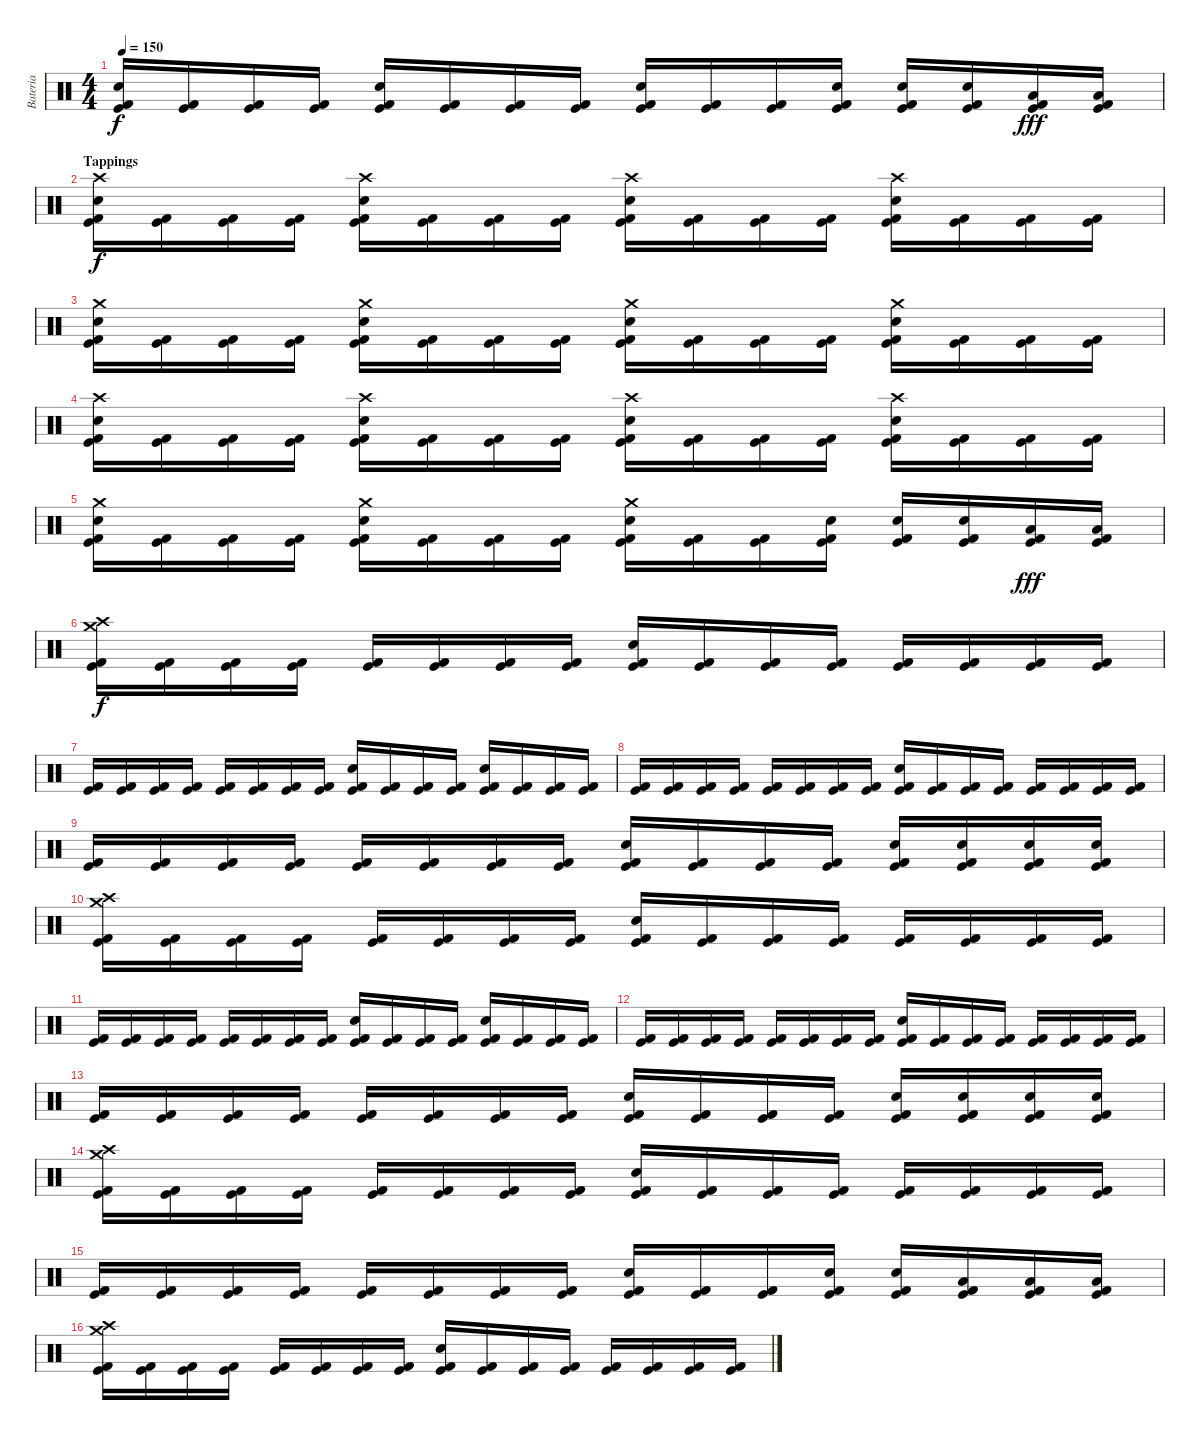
\track ("Bateria" "Bateria") {instrument percussion}
\staff {score}
\articulation defaults
\ts (4 4)
\tempo 150
\clef neutral
\ks c
("Kick (hit) 2" "Kick (hit)" "Electric Snare (hit)").16{dy f} ("Kick (hit) 2" "Kick (hit)").16 ("Kick (hit) 2" "Kick (hit)").16 ("Kick (hit) 2" "Kick (hit)").16 ("Kick (hit) 2" "Kick (hit)" "Electric Snare (hit)").16 ("Kick (hit) 2" "Kick (hit)").16 ("Kick (hit) 2" "Kick (hit)").16 ("Kick (hit) 2" "Kick (hit)").16 ("Kick (hit) 2" "Kick (hit)" "Electric Snare (hit)").16 ("Kick (hit) 2" "Kick (hit)").16 ("Kick (hit) 2" "Kick (hit)").16 ("Kick (hit) 2" "Kick (hit)" "Electric Snare (hit)").16 ("Kick (hit) 2" "Kick (hit)" "Electric Snare (hit)").16 ("Kick (hit) 2" "Kick (hit)" "Electric Snare (hit)").16 ("Kick (hit) 2" "Kick (hit)" "Low Tom (hit)").16{dy fff} ("Kick (hit) 2" "Kick (hit)" "Low Tom (hit)").16 |
\section ("" "Tappings")
("Kick (hit) 2" "Kick (hit)" "Electric Snare (hit)" "Crash high (hit)").16{dy f} ("Kick (hit) 2" "Kick (hit)").16 ("Kick (hit) 2" "Kick (hit)").16 ("Kick (hit) 2" "Kick (hit)").16 ("Kick (hit) 2" "Kick (hit)" "Electric Snare (hit)" "Crash high (hit)").16 ("Kick (hit) 2" "Kick (hit)").16 ("Kick (hit) 2" "Kick (hit)").16 ("Kick (hit) 2" "Kick (hit)").16 ("Kick (hit) 2" "Kick (hit)" "Electric Snare (hit)" "Crash high (hit)").16 ("Kick (hit) 2" "Kick (hit)").16 ("Kick (hit) 2" "Kick (hit)").16 ("Kick (hit) 2" "Kick (hit)").16 ("Kick (hit) 2" "Kick (hit)" "Electric Snare (hit)" "Crash high (hit)").16 ("Kick (hit) 2" "Kick (hit)").16 ("Kick (hit) 2" "Kick (hit)").16 ("Kick (hit) 2" "Kick (hit)").16 |
("Kick (hit) 2" "Kick (hit)" "Electric Snare (hit)" "Crash medium (hit)").16 ("Kick (hit) 2" "Kick (hit)").16 ("Kick (hit) 2" "Kick (hit)").16 ("Kick (hit) 2" "Kick (hit)").16 ("Kick (hit) 2" "Kick (hit)" "Electric Snare (hit)" "Crash medium (hit)").16 ("Kick (hit) 2" "Kick (hit)").16 ("Kick (hit) 2" "Kick (hit)").16 ("Kick (hit) 2" "Kick (hit)").16 ("Kick (hit) 2" "Kick (hit)" "Electric Snare (hit)" "Crash medium (hit)").16 ("Kick (hit) 2" "Kick (hit)").16 ("Kick (hit) 2" "Kick (hit)").16 ("Kick (hit) 2" "Kick (hit)").16 ("Kick (hit) 2" "Kick (hit)" "Electric Snare (hit)" "Crash medium (hit)").16 ("Kick (hit) 2" "Kick (hit)").16 ("Kick (hit) 2" "Kick (hit)").16 ("Kick (hit) 2" "Kick (hit)").16 |
("Kick (hit) 2" "Kick (hit)" "Electric Snare (hit)" "Crash high (hit)").16 ("Kick (hit) 2" "Kick (hit)").16 ("Kick (hit) 2" "Kick (hit)").16 ("Kick (hit) 2" "Kick (hit)").16 ("Kick (hit) 2" "Kick (hit)" "Electric Snare (hit)" "Crash high (hit)").16 ("Kick (hit) 2" "Kick (hit)").16 ("Kick (hit) 2" "Kick (hit)").16 ("Kick (hit) 2" "Kick (hit)").16 ("Kick (hit) 2" "Kick (hit)" "Electric Snare (hit)" "Crash high (hit)").16 ("Kick (hit) 2" "Kick (hit)").16 ("Kick (hit) 2" "Kick (hit)").16 ("Kick (hit) 2" "Kick (hit)").16 ("Kick (hit) 2" "Kick (hit)" "Electric Snare (hit)" "Crash high (hit)").16 ("Kick (hit) 2" "Kick (hit)").16 ("Kick (hit) 2" "Kick (hit)").16 ("Kick (hit) 2" "Kick (hit)").16 |
("Kick (hit) 2" "Kick (hit)" "Electric Snare (hit)" "Crash medium (hit)").16 ("Kick (hit) 2" "Kick (hit)").16 ("Kick (hit) 2" "Kick (hit)").16 ("Kick (hit) 2" "Kick (hit)").16 ("Kick (hit) 2" "Kick (hit)" "Electric Snare (hit)" "Crash medium (hit)").16 ("Kick (hit) 2" "Kick (hit)").16 ("Kick (hit) 2" "Kick (hit)").16 ("Kick (hit) 2" "Kick (hit)").16 ("Kick (hit) 2" "Kick (hit)" "Electric Snare (hit)" "Crash medium (hit)").16 ("Kick (hit) 2" "Kick (hit)").16 ("Kick (hit) 2" "Kick (hit)").16 ("Kick (hit) 2" "Kick (hit)" "Electric Snare (hit)").16 ("Kick (hit) 2" "Kick (hit)" "Electric Snare (hit)").16 ("Kick (hit) 2" "Kick (hit)" "Electric Snare (hit)").16 ("Kick (hit) 2" "Kick (hit)" "Low Tom (hit)").16{dy fff} ("Kick (hit) 2" "Kick (hit)" "Low Tom (hit)").16 |
("Kick (hit) 2" "Kick (hit)" "Crash medium (hit)" "Crash high (hit)").16{dy f} ("Kick (hit) 2" "Kick (hit)").16 ("Kick (hit) 2" "Kick (hit)").16 ("Kick (hit) 2" "Kick (hit)").16 ("Kick (hit) 2" "Kick (hit)").16 ("Kick (hit) 2" "Kick (hit)").16 ("Kick (hit) 2" "Kick (hit)").16 ("Kick (hit) 2" "Kick (hit)").16 ("Kick (hit) 2" "Kick (hit)" "Electric Snare (hit)").16 ("Kick (hit) 2" "Kick (hit)").16 ("Kick (hit) 2" "Kick (hit)").16 ("Kick (hit) 2" "Kick (hit)").16 ("Kick (hit) 2" "Kick (hit)").16 ("Kick (hit) 2" "Kick (hit)").16 ("Kick (hit) 2" "Kick (hit)").16 ("Kick (hit) 2" "Kick (hit)").16 |
("Kick (hit) 2" "Kick (hit)").16 ("Kick (hit) 2" "Kick (hit)").16 ("Kick (hit) 2" "Kick (hit)").16 ("Kick (hit) 2" "Kick (hit)").16 ("Kick (hit) 2" "Kick (hit)").16 ("Kick (hit) 2" "Kick (hit)").16 ("Kick (hit) 2" "Kick (hit)").16 ("Kick (hit) 2" "Kick (hit)").16 ("Kick (hit) 2" "Kick (hit)" "Electric Snare (hit)").16 ("Kick (hit) 2" "Kick (hit)").16 ("Kick (hit) 2" "Kick (hit)").16 ("Kick (hit) 2" "Kick (hit)").16 ("Kick (hit) 2" "Kick (hit)" "Electric Snare (hit)").16 ("Kick (hit) 2" "Kick (hit)").16 ("Kick (hit) 2" "Kick (hit)").16 ("Kick (hit) 2" "Kick (hit)").16 |
("Kick (hit) 2" "Kick (hit)").16 ("Kick (hit) 2" "Kick (hit)").16 ("Kick (hit) 2" "Kick (hit)").16 ("Kick (hit) 2" "Kick (hit)").16 ("Kick (hit) 2" "Kick (hit)").16 ("Kick (hit) 2" "Kick (hit)").16 ("Kick (hit) 2" "Kick (hit)").16 ("Kick (hit) 2" "Kick (hit)").16 ("Kick (hit) 2" "Kick (hit)" "Electric Snare (hit)").16 ("Kick (hit) 2" "Kick (hit)").16 ("Kick (hit) 2" "Kick (hit)").16 ("Kick (hit) 2" "Kick (hit)").16 ("Kick (hit) 2" "Kick (hit)").16 ("Kick (hit) 2" "Kick (hit)").16 ("Kick (hit) 2" "Kick (hit)").16 ("Kick (hit) 2" "Kick (hit)").16 |
("Kick (hit) 2" "Kick (hit)").16 ("Kick (hit) 2" "Kick (hit)").16 ("Kick (hit) 2" "Kick (hit)").16 ("Kick (hit) 2" "Kick (hit)").16 ("Kick (hit) 2" "Kick (hit)").16 ("Kick (hit) 2" "Kick (hit)").16 ("Kick (hit) 2" "Kick (hit)").16 ("Kick (hit) 2" "Kick (hit)").16 ("Kick (hit) 2" "Kick (hit)" "Electric Snare (hit)").16 ("Kick (hit) 2" "Kick (hit)").16 ("Kick (hit) 2" "Kick (hit)").16 ("Kick (hit) 2" "Kick (hit)").16 ("Kick (hit) 2" "Kick (hit)" "Electric Snare (hit)").16 ("Kick (hit) 2" "Kick (hit)" "Electric Snare (hit)").16 ("Kick (hit) 2" "Kick (hit)" "Electric Snare (hit)").16 ("Kick (hit) 2" "Kick (hit)" "Electric Snare (hit)").16 |
("Kick (hit) 2" "Kick (hit)" "Crash medium (hit)" "Crash high (hit)").16 ("Kick (hit) 2" "Kick (hit)").16 ("Kick (hit) 2" "Kick (hit)").16 ("Kick (hit) 2" "Kick (hit)").16 ("Kick (hit) 2" "Kick (hit)").16 ("Kick (hit) 2" "Kick (hit)").16 ("Kick (hit) 2" "Kick (hit)").16 ("Kick (hit) 2" "Kick (hit)").16 ("Kick (hit) 2" "Kick (hit)" "Electric Snare (hit)").16 ("Kick (hit) 2" "Kick (hit)").16 ("Kick (hit) 2" "Kick (hit)").16 ("Kick (hit) 2" "Kick (hit)").16 ("Kick (hit) 2" "Kick (hit)").16 ("Kick (hit) 2" "Kick (hit)").16 ("Kick (hit) 2" "Kick (hit)").16 ("Kick (hit) 2" "Kick (hit)").16 |
("Kick (hit) 2" "Kick (hit)").16 ("Kick (hit) 2" "Kick (hit)").16 ("Kick (hit) 2" "Kick (hit)").16 ("Kick (hit) 2" "Kick (hit)").16 ("Kick (hit) 2" "Kick (hit)").16 ("Kick (hit) 2" "Kick (hit)").16 ("Kick (hit) 2" "Kick (hit)").16 ("Kick (hit) 2" "Kick (hit)").16 ("Kick (hit) 2" "Kick (hit)" "Electric Snare (hit)").16 ("Kick (hit) 2" "Kick (hit)").16 ("Kick (hit) 2" "Kick (hit)").16 ("Kick (hit) 2" "Kick (hit)").16 ("Kick (hit) 2" "Kick (hit)" "Electric Snare (hit)").16 ("Kick (hit) 2" "Kick (hit)").16 ("Kick (hit) 2" "Kick (hit)").16 ("Kick (hit) 2" "Kick (hit)").16 |
("Kick (hit) 2" "Kick (hit)").16 ("Kick (hit) 2" "Kick (hit)").16 ("Kick (hit) 2" "Kick (hit)").16 ("Kick (hit) 2" "Kick (hit)").16 ("Kick (hit) 2" "Kick (hit)").16 ("Kick (hit) 2" "Kick (hit)").16 ("Kick (hit) 2" "Kick (hit)").16 ("Kick (hit) 2" "Kick (hit)").16 ("Kick (hit) 2" "Kick (hit)" "Electric Snare (hit)").16 ("Kick (hit) 2" "Kick (hit)").16 ("Kick (hit) 2" "Kick (hit)").16 ("Kick (hit) 2" "Kick (hit)").16 ("Kick (hit) 2" "Kick (hit)").16 ("Kick (hit) 2" "Kick (hit)").16 ("Kick (hit) 2" "Kick (hit)").16 ("Kick (hit) 2" "Kick (hit)").16 |
("Kick (hit) 2" "Kick (hit)").16 ("Kick (hit) 2" "Kick (hit)").16 ("Kick (hit) 2" "Kick (hit)").16 ("Kick (hit) 2" "Kick (hit)").16 ("Kick (hit) 2" "Kick (hit)").16 ("Kick (hit) 2" "Kick (hit)").16 ("Kick (hit) 2" "Kick (hit)").16 ("Kick (hit) 2" "Kick (hit)").16 ("Kick (hit) 2" "Kick (hit)" "Electric Snare (hit)").16 ("Kick (hit) 2" "Kick (hit)").16 ("Kick (hit) 2" "Kick (hit)").16 ("Kick (hit) 2" "Kick (hit)").16 ("Kick (hit) 2" "Kick (hit)" "Electric Snare (hit)").16 ("Kick (hit) 2" "Kick (hit)" "Electric Snare (hit)").16 ("Kick (hit) 2" "Kick (hit)" "Electric Snare (hit)").16 ("Kick (hit) 2" "Kick (hit)" "Electric Snare (hit)").16 |
("Kick (hit) 2" "Kick (hit)" "Crash medium (hit)" "Crash high (hit)").16 ("Kick (hit) 2" "Kick (hit)").16 ("Kick (hit) 2" "Kick (hit)").16 ("Kick (hit) 2" "Kick (hit)").16 ("Kick (hit) 2" "Kick (hit)").16 ("Kick (hit) 2" "Kick (hit)").16 ("Kick (hit) 2" "Kick (hit)").16 ("Kick (hit) 2" "Kick (hit)").16 ("Kick (hit) 2" "Kick (hit)" "Electric Snare (hit)").16 ("Kick (hit) 2" "Kick (hit)").16 ("Kick (hit) 2" "Kick (hit)").16 ("Kick (hit) 2" "Kick (hit)").16 ("Kick (hit) 2" "Kick (hit)").16 ("Kick (hit) 2" "Kick (hit)").16 ("Kick (hit) 2" "Kick (hit)").16 ("Kick (hit) 2" "Kick (hit)").16 |
("Kick (hit) 2" "Kick (hit)").16 ("Kick (hit) 2" "Kick (hit)").16 ("Kick (hit) 2" "Kick (hit)").16 ("Kick (hit) 2" "Kick (hit)").16 ("Kick (hit) 2" "Kick (hit)").16 ("Kick (hit) 2" "Kick (hit)").16 ("Kick (hit) 2" "Kick (hit)").16 ("Kick (hit) 2" "Kick (hit)").16 ("Kick (hit) 2" "Kick (hit)" "Electric Snare (hit)").16 ("Kick (hit) 2" "Kick (hit)").16 ("Kick (hit) 2" "Kick (hit)").16 ("Kick (hit) 2" "Kick (hit)" "Electric Snare (hit)").16 ("Kick (hit) 2" "Kick (hit)" "Electric Snare (hit)").16 ("Kick (hit) 2" "Kick (hit)" "Low Tom (hit)").16 ("Kick (hit) 2" "Kick (hit)" "Low Tom (hit)").16 ("Kick (hit) 2" "Kick (hit)" "Low Tom (hit)").16 |
("Kick (hit) 2" "Kick (hit)" "Crash medium (hit)" "Crash high (hit)").16 ("Kick (hit) 2" "Kick (hit)").16 ("Kick (hit) 2" "Kick (hit)").16 ("Kick (hit) 2" "Kick (hit)").16 ("Kick (hit) 2" "Kick (hit)").16 ("Kick (hit) 2" "Kick (hit)").16 ("Kick (hit) 2" "Kick (hit)").16 ("Kick (hit) 2" "Kick (hit)").16 ("Kick (hit) 2" "Kick (hit)" "Electric Snare (hit)").16 ("Kick (hit) 2" "Kick (hit)").16 ("Kick (hit) 2" "Kick (hit)").16 ("Kick (hit) 2" "Kick (hit)").16 ("Kick (hit) 2" "Kick (hit)").16 ("Kick (hit) 2" "Kick (hit)").16 ("Kick (hit) 2" "Kick (hit)").16 ("Kick (hit) 2" "Kick (hit)").16
